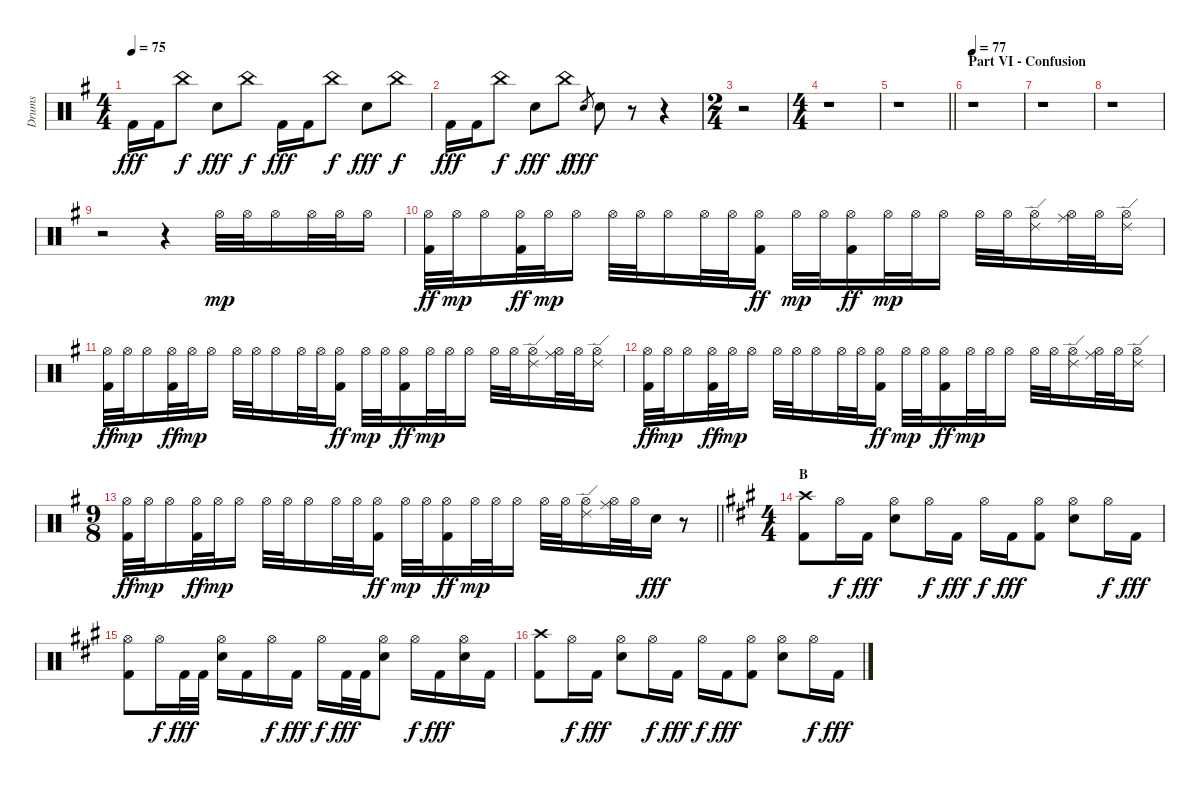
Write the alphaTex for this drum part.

\track ("Drums" "Drums") {instrument percussion}
\staff {score}
\articulation defaults
\ts (4 4)
\tempo 75
\clef neutral
\ks eminor "Kick (hit) 2".16{dy fff} "Kick (hit) 2".16 "China (hit)".8{dy f} "Snare (hit) 2".8{dy fff} "China (hit)".8{dy f} "Kick (hit) 2".16{dy fff} "Kick (hit) 2".16 "China (hit)".8{dy f} "Snare (hit) 2".8{dy fff} "China (hit)".8{dy f}
|
"Kick (hit) 2".16{dy fff} "Kick (hit) 2".16 "China (hit)".8{dy f} "Snare (hit) 2".8{dy fff} "China (hit)".8{dy f} "Snare (hit) 2".8{gr dy fff} "Snare (hit) 2".8 r.8 r.4 |
\ts (2 4)
r.2 |
\ts (4 4)
r.1 |
\barLineRight lightlight
r.1 |
\section ("" "Part VI - Confusion")
\tempo 77
r.1 |
r.1 |
r.1 |
r.2 r.4 "Hi-Hat (open)".32{dy mp} "Hi-Hat (open)".32 "Hi-Hat (open)".16 "Hi-Hat (open)".32 "Hi-Hat (open)".32 "Hi-Hat (open)".16 |
("Hi-Hat (open)" "Kick (hit) 2").32{dy ff} "Hi-Hat (open)".32{dy mp} "Hi-Hat (open)".16 ("Hi-Hat (open)" "Kick (hit) 2").32{dy ff} "Hi-Hat (open)".32{dy mp} "Hi-Hat (open)".16 "Hi-Hat (open)".32 "Hi-Hat (open)".32 "Hi-Hat (open)".16 "Hi-Hat (open)".32 "Hi-Hat (open)".32 ("Hi-Hat (open)" "Kick (hit) 2").16{dy ff} "Hi-Hat (open)".32{dy mp} "Hi-Hat (open)".32 ("Hi-Hat (open)" "Kick (hit) 2").16{dy ff} "Hi-Hat (open)".32{dy mp} "Hi-Hat (open)".32 "Hi-Hat (open)".16 "Hi-Hat (open)".32 "Hi-Hat (open)".32 ("Hi-Hat (open)" "Ride (edge) 2").16 ("Hi-Hat (open)" "Ride (middle)").32 "Hi-Hat (open)".32 ("Hi-Hat (open)" "Ride (edge) 2").16 |
("Hi-Hat (open)" "Kick (hit) 2").32{dy ff} "Hi-Hat (open)".32{dy mp} "Hi-Hat (open)".16 ("Hi-Hat (open)" "Kick (hit) 2").32{dy ff} "Hi-Hat (open)".32{dy mp} "Hi-Hat (open)".16 "Hi-Hat (open)".32 "Hi-Hat (open)".32 "Hi-Hat (open)".16 "Hi-Hat (open)".32 "Hi-Hat (open)".32 ("Hi-Hat (open)" "Kick (hit) 2").16{dy ff} "Hi-Hat (open)".32{dy mp} "Hi-Hat (open)".32 ("Hi-Hat (open)" "Kick (hit) 2").16{dy ff} "Hi-Hat (open)".32{dy mp} "Hi-Hat (open)".32 "Hi-Hat (open)".16 "Hi-Hat (open)".32 "Hi-Hat (open)".32 ("Hi-Hat (open)" "Ride (edge) 2").16 ("Hi-Hat (open)" "Ride (middle)").32 "Hi-Hat (open)".32 ("Hi-Hat (open)" "Ride (edge) 2").16 |
("Hi-Hat (open)" "Kick (hit) 2").32{dy ff} "Hi-Hat (open)".32{dy mp} "Hi-Hat (open)".16 ("Hi-Hat (open)" "Kick (hit) 2").32{dy ff} "Hi-Hat (open)".32{dy mp} "Hi-Hat (open)".16 "Hi-Hat (open)".32 "Hi-Hat (open)".32 "Hi-Hat (open)".16 "Hi-Hat (open)".32 "Hi-Hat (open)".32 ("Hi-Hat (open)" "Kick (hit) 2").16{dy ff} "Hi-Hat (open)".32{dy mp} "Hi-Hat (open)".32 ("Hi-Hat (open)" "Kick (hit) 2").16{dy ff} "Hi-Hat (open)".32{dy mp} "Hi-Hat (open)".32 "Hi-Hat (open)".16 "Hi-Hat (open)".32 "Hi-Hat (open)".32 ("Hi-Hat (open)" "Ride (edge) 2").16 ("Hi-Hat (open)" "Ride (middle)").32 "Hi-Hat (open)".32 ("Hi-Hat (open)" "Ride (edge) 2").16 |
\ts (9 8)
\barLineRight lightlight
("Hi-Hat (open)" "Kick (hit) 2").32{dy ff} "Hi-Hat (open)".32{dy mp} "Hi-Hat (open)".16 ("Hi-Hat (open)" "Kick (hit) 2").32{dy ff} "Hi-Hat (open)".32{dy mp} "Hi-Hat (open)".16{beam split} "Hi-Hat (open)".32 "Hi-Hat (open)".32 "Hi-Hat (open)".16{beam merge} "Hi-Hat (open)".32 "Hi-Hat (open)".32 ("Hi-Hat (open)" "Kick (hit) 2").16{dy ff beam split} "Hi-Hat (open)".32{dy mp} "Hi-Hat (open)".32 ("Hi-Hat (open)" "Kick (hit) 2").16{dy ff} "Hi-Hat (open)".32{dy mp} "Hi-Hat (open)".32 "Hi-Hat (open)".16 "Hi-Hat (open)".32 "Hi-Hat (open)".32 ("Hi-Hat (open)" "Ride (edge) 2").16 ("Hi-Hat (open)" "Ride (middle)").32 "Hi-Hat (open)".32 "Snare (hit) 2".16{dy fff} r.8 |
\ts (4 4)
\section ("" "B")
\ks f#minor
("Crash high (hit)" "Kick (hit) 2").8 "Hi-Hat (open)".16{dy f} "Kick (hit) 2".16{dy fff} ("Hi-Hat (open)" "Snare (hit) 2").8 "Hi-Hat (open)".16{dy f} "Kick (hit) 2".16{dy fff} "Hi-Hat (open)".16{dy f} "Kick (hit) 2".16{dy fff} ("Hi-Hat (open)" "Kick (hit) 2").8 ("Hi-Hat (open)" "Snare (hit) 2").8 "Hi-Hat (open)".16{dy f} "Kick (hit) 2".16{dy fff} |
("Hi-Hat (open)" "Kick (hit) 2").8 "Hi-Hat (open)".16{dy f} "Kick (hit) 2".32{dy fff} "Kick (hit) 2".32 ("Hi-Hat (open)" "Snare (hit) 2").16 "Kick (hit) 2".16 "Hi-Hat (open)".16{dy f} "Kick (hit) 2".16{dy fff} "Hi-Hat (open)".16{dy f} "Kick (hit) 2".32{dy fff} "Kick (hit) 2".32 ("Hi-Hat (open)" "Snare (hit) 2").8 "Hi-Hat (open)".16{dy f} "Kick (hit) 2".16{dy fff} ("Hi-Hat (open)" "Snare (hit) 2").16 "Kick (hit) 2".16 |
("Crash high (hit)" "Kick (hit) 2").8 "Hi-Hat (open)".16{dy f} "Kick (hit) 2".16{dy fff} ("Hi-Hat (open)" "Snare (hit) 2").8 "Hi-Hat (open)".16{dy f} "Kick (hit) 2".16{dy fff} "Hi-Hat (open)".16{dy f} "Kick (hit) 2".16{dy fff} ("Hi-Hat (open)" "Kick (hit) 2").8 ("Hi-Hat (open)" "Snare (hit) 2").8 "Hi-Hat (open)".16{dy f} "Kick (hit) 2".16{dy fff}
